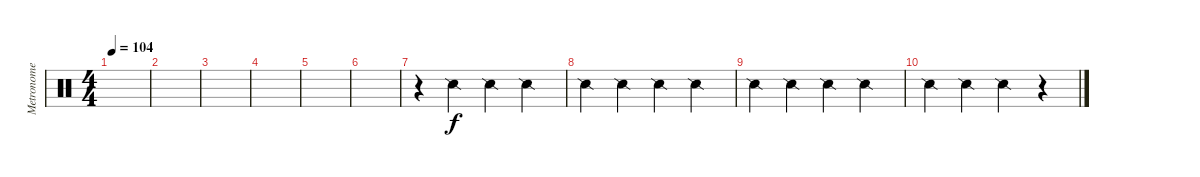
\track ("Metronome" "Metronome") {instrument percussion}
\staff {score}
\articulation defaults
\ts (4 4)
\tempo 104
\clef neutral
\ks c
|
|
|
|
|
|
r.4 "Snare (side stick) 2".4 "Snare (side stick) 2".4 "Snare (side stick) 2".4 |
"Snare (side stick) 2".4 "Snare (side stick) 2".4 "Snare (side stick) 2".4 "Snare (side stick) 2".4 |
"Snare (side stick) 2".4 "Snare (side stick) 2".4 "Snare (side stick) 2".4 "Snare (side stick) 2".4 |
"Snare (side stick) 2".4 "Snare (side stick) 2".4 "Snare (side stick) 2".4 r.4
